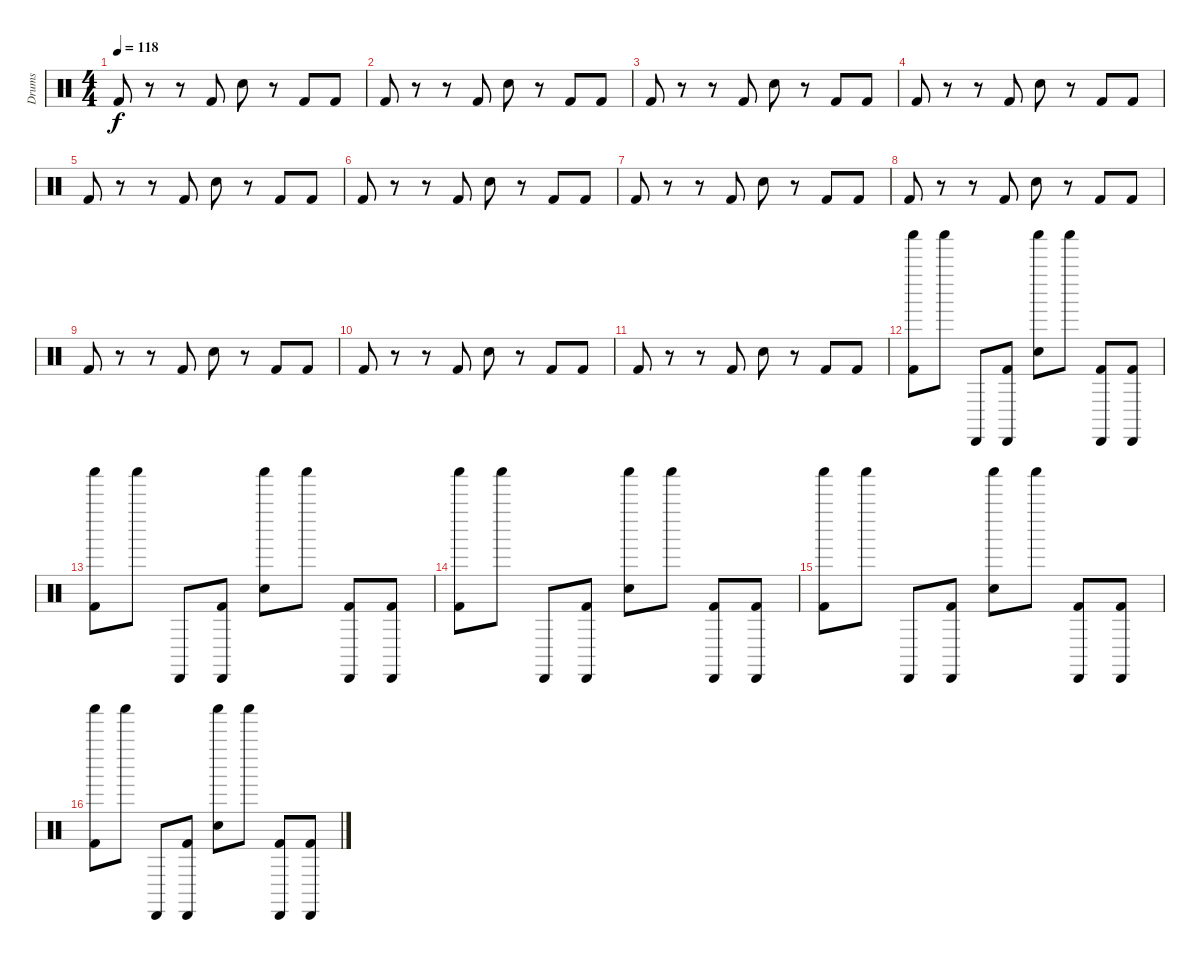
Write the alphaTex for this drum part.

\track ("Drums" "Drums") {instrument percussion}
\staff {score}
\articulation defaults
\ts (4 4)
\tempo 118
\clef neutral
\ks c "Kick (hit) 2".8{dy f}
r.8 r.8 "Kick (hit) 2".8 "Electric Snare (hit)".8 r.8 "Kick (hit) 2".8 "Kick (hit) 2".8 |
"Kick (hit) 2".8 r.8 r.8 "Kick (hit) 2".8 "Electric Snare (hit)".8 r.8 "Kick (hit) 2".8 "Kick (hit) 2".8 |
"Kick (hit) 2".8 r.8 r.8 "Kick (hit) 2".8 "Electric Snare (hit)".8 r.8 "Kick (hit) 2".8 "Kick (hit) 2".8 |
"Kick (hit) 2".8 r.8 r.8 "Kick (hit) 2".8 "Electric Snare (hit)".8 r.8 "Kick (hit) 2".8 "Kick (hit) 2".8 |
"Kick (hit) 2".8 r.8 r.8 "Kick (hit) 2".8 "Electric Snare (hit)".8 r.8 "Kick (hit) 2".8 "Kick (hit) 2".8 |
"Kick (hit) 2".8 r.8 r.8 "Kick (hit) 2".8 "Electric Snare (hit)".8 r.8 "Kick (hit) 2".8 "Kick (hit) 2".8 |
"Kick (hit) 2".8 r.8 r.8 "Kick (hit) 2".8 "Electric Snare (hit)".8 r.8 "Kick (hit) 2".8 "Kick (hit) 2".8 |
"Kick (hit) 2".8 r.8 r.8 "Kick (hit) 2".8 "Electric Snare (hit)".8 r.8 "Kick (hit) 2".8 "Kick (hit) 2".8 |
"Kick (hit) 2".8 r.8 r.8 "Kick (hit) 2".8 "Electric Snare (hit)".8 r.8 "Kick (hit) 2".8 "Kick (hit) 2".8 |
"Kick (hit) 2".8 r.8 r.8 "Kick (hit) 2".8 "Electric Snare (hit)".8 r.8 "Kick (hit) 2".8 "Kick (hit) 2".8 |
"Kick (hit) 2".8 r.8 r.8 "Kick (hit) 2".8 "Electric Snare (hit)".8 r.8 "Kick (hit) 2".8 "Kick (hit) 2".8 |
("Shaker (hit)" "Kick (hit) 2").8 "Shaker (hit)".8 "Cabasa (hit)".8 ("Cabasa (hit)" "Kick (hit) 2").8 ("Shaker (hit)" "Electric Snare (hit)").8 "Shaker (hit)".8 ("Cabasa (hit)" "Kick (hit) 2").8 ("Cabasa (hit)" "Kick (hit) 2").8 |
("Shaker (hit)" "Kick (hit) 2").8 "Shaker (hit)".8 "Cabasa (hit)".8 ("Cabasa (hit)" "Kick (hit) 2").8 ("Shaker (hit)" "Electric Snare (hit)").8 "Shaker (hit)".8 ("Cabasa (hit)" "Kick (hit) 2").8 ("Cabasa (hit)" "Kick (hit) 2").8 |
("Shaker (hit)" "Kick (hit) 2").8 "Shaker (hit)".8 "Cabasa (hit)".8 ("Cabasa (hit)" "Kick (hit) 2").8 ("Shaker (hit)" "Electric Snare (hit)").8 "Shaker (hit)".8 ("Cabasa (hit)" "Kick (hit) 2").8 ("Cabasa (hit)" "Kick (hit) 2").8 |
("Shaker (hit)" "Kick (hit) 2").8 "Shaker (hit)".8 "Cabasa (hit)".8 ("Cabasa (hit)" "Kick (hit) 2").8 ("Shaker (hit)" "Electric Snare (hit)").8 "Shaker (hit)".8 ("Cabasa (hit)" "Kick (hit) 2").8 ("Cabasa (hit)" "Kick (hit) 2").8 |
("Shaker (hit)" "Kick (hit) 2").8 "Shaker (hit)".8 "Cabasa (hit)".8 ("Cabasa (hit)" "Kick (hit) 2").8 ("Shaker (hit)" "Electric Snare (hit)").8 "Shaker (hit)".8 ("Cabasa (hit)" "Kick (hit) 2").8 ("Cabasa (hit)" "Kick (hit) 2").8
